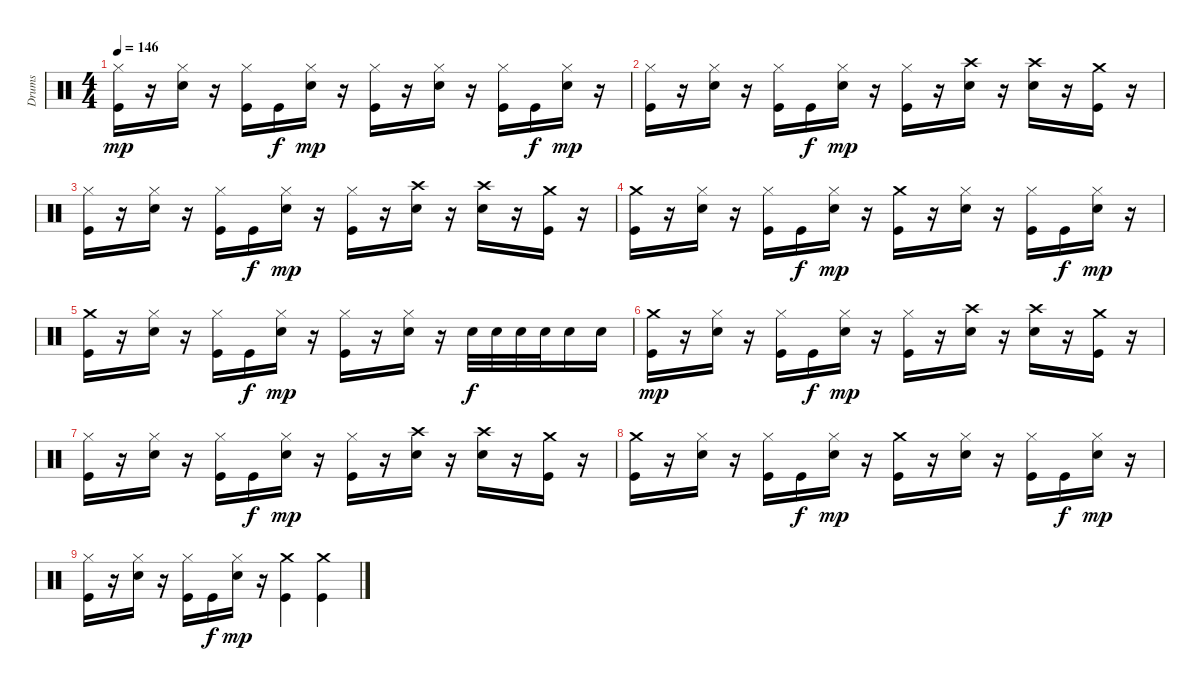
\track ("Drums" "Drums") {instrument percussion}
\staff {score}
\articulation defaults
\ts (4 4)
\tempo 146
\clef neutral
\ks c
("Hi-Hat (closed)" "Kick (hit)").16{dy mp} r.16 ("Hi-Hat (closed)" "Electric Snare (hit)").16 r.16 ("Hi-Hat (closed)" "Kick (hit)").16 "Kick (hit)".16{dy f} ("Hi-Hat (closed)" "Electric Snare (hit)").16{dy mp} r.16 ("Hi-Hat (closed)" "Kick (hit)").16 r.16 ("Hi-Hat (closed)" "Electric Snare (hit)").16 r.16 ("Hi-Hat (closed)" "Kick (hit)").16 "Kick (hit)".16{dy f} ("Hi-Hat (closed)" "Electric Snare (hit)").16{dy mp} r.16 |
("Hi-Hat (closed)" "Kick (hit)").16 r.16 ("Hi-Hat (closed)" "Electric Snare (hit)").16 r.16 ("Hi-Hat (closed)" "Kick (hit)").16 "Kick (hit)".16{dy f} ("Hi-Hat (closed)" "Electric Snare (hit)").16{dy mp} r.16 ("Hi-Hat (closed)" "Kick (hit)").16 r.16 ("Crash high (hit)" "Electric Snare (hit)").16 r.16 ("Crash high (hit)" "Electric Snare (hit)").16 r.16 ("Crash medium (hit)" "Kick (hit)").16 r.16 |
("Hi-Hat (closed)" "Kick (hit)").16 r.16 ("Hi-Hat (closed)" "Electric Snare (hit)").16 r.16 ("Hi-Hat (closed)" "Kick (hit)").16 "Kick (hit)".16{dy f} ("Hi-Hat (closed)" "Electric Snare (hit)").16{dy mp} r.16 ("Hi-Hat (closed)" "Kick (hit)").16 r.16 ("Crash high (hit)" "Electric Snare (hit)").16 r.16 ("Crash high (hit)" "Electric Snare (hit)").16 r.16 ("Crash medium (hit)" "Kick (hit)").16 r.16 |
("Crash medium (hit)" "Kick (hit)").16 r.16 ("Hi-Hat (closed)" "Electric Snare (hit)").16 r.16 ("Hi-Hat (closed)" "Kick (hit)").16 "Kick (hit)".16{dy f} ("Hi-Hat (closed)" "Electric Snare (hit)").16{dy mp} r.16 ("Crash medium (hit)" "Kick (hit)").16 r.16 ("Hi-Hat (closed)" "Electric Snare (hit)").16 r.16 ("Hi-Hat (closed)" "Kick (hit)").16 "Kick (hit)".16{dy f} ("Hi-Hat (closed)" "Electric Snare (hit)").16{dy mp} r.16 |
("Crash medium (hit)" "Kick (hit)").16 r.16 ("Hi-Hat (closed)" "Electric Snare (hit)").16 r.16 ("Hi-Hat (closed)" "Kick (hit)").16 "Kick (hit)".16{dy f} ("Hi-Hat (closed)" "Electric Snare (hit)").16{dy mp} r.16 ("Hi-Hat (closed)" "Kick (hit)").16 r.16 ("Hi-Hat (closed)" "Electric Snare (hit)").16 r.16 "Electric Snare (hit)".32{dy f} "Electric Snare (hit)".32 "Electric Snare (hit)".32 "Electric Snare (hit)".32 "Electric Snare (hit)".16 "Electric Snare (hit)".16 |
("Crash medium (hit)" "Kick (hit)").16{dy mp} r.16 ("Hi-Hat (closed)" "Electric Snare (hit)").16 r.16 ("Hi-Hat (closed)" "Kick (hit)").16 "Kick (hit)".16{dy f} ("Hi-Hat (closed)" "Electric Snare (hit)").16{dy mp} r.16 ("Hi-Hat (closed)" "Kick (hit)").16 r.16 ("Crash high (hit)" "Electric Snare (hit)").16 r.16 ("Crash high (hit)" "Electric Snare (hit)").16 r.16 ("Crash medium (hit)" "Kick (hit)").16 r.16 |
("Hi-Hat (closed)" "Kick (hit)").16 r.16 ("Hi-Hat (closed)" "Electric Snare (hit)").16 r.16 ("Hi-Hat (closed)" "Kick (hit)").16 "Kick (hit)".16{dy f} ("Hi-Hat (closed)" "Electric Snare (hit)").16{dy mp} r.16 ("Hi-Hat (closed)" "Kick (hit)").16 r.16 ("Crash high (hit)" "Electric Snare (hit)").16 r.16 ("Crash high (hit)" "Electric Snare (hit)").16 r.16 ("Crash medium (hit)" "Kick (hit)").16 r.16 |
("Crash medium (hit)" "Kick (hit)").16 r.16 ("Hi-Hat (closed)" "Electric Snare (hit)").16 r.16 ("Hi-Hat (closed)" "Kick (hit)").16 "Kick (hit)".16{dy f} ("Hi-Hat (closed)" "Electric Snare (hit)").16{dy mp} r.16 ("Crash medium (hit)" "Kick (hit)").16 r.16 ("Hi-Hat (closed)" "Electric Snare (hit)").16 r.16 ("Hi-Hat (closed)" "Kick (hit)").16 "Kick (hit)".16{dy f} ("Hi-Hat (closed)" "Electric Snare (hit)").16{dy mp} r.16 |
("Hi-Hat (closed)" "Kick (hit)").16 r.16 ("Hi-Hat (closed)" "Electric Snare (hit)").16 r.16 ("Hi-Hat (closed)" "Kick (hit)").16 "Kick (hit)".16{dy f} ("Hi-Hat (closed)" "Electric Snare (hit)").16{dy mp} r.16 ("Crash medium (hit)" "Kick (hit)").4 ("Crash medium (hit)" "Kick (hit)").4
